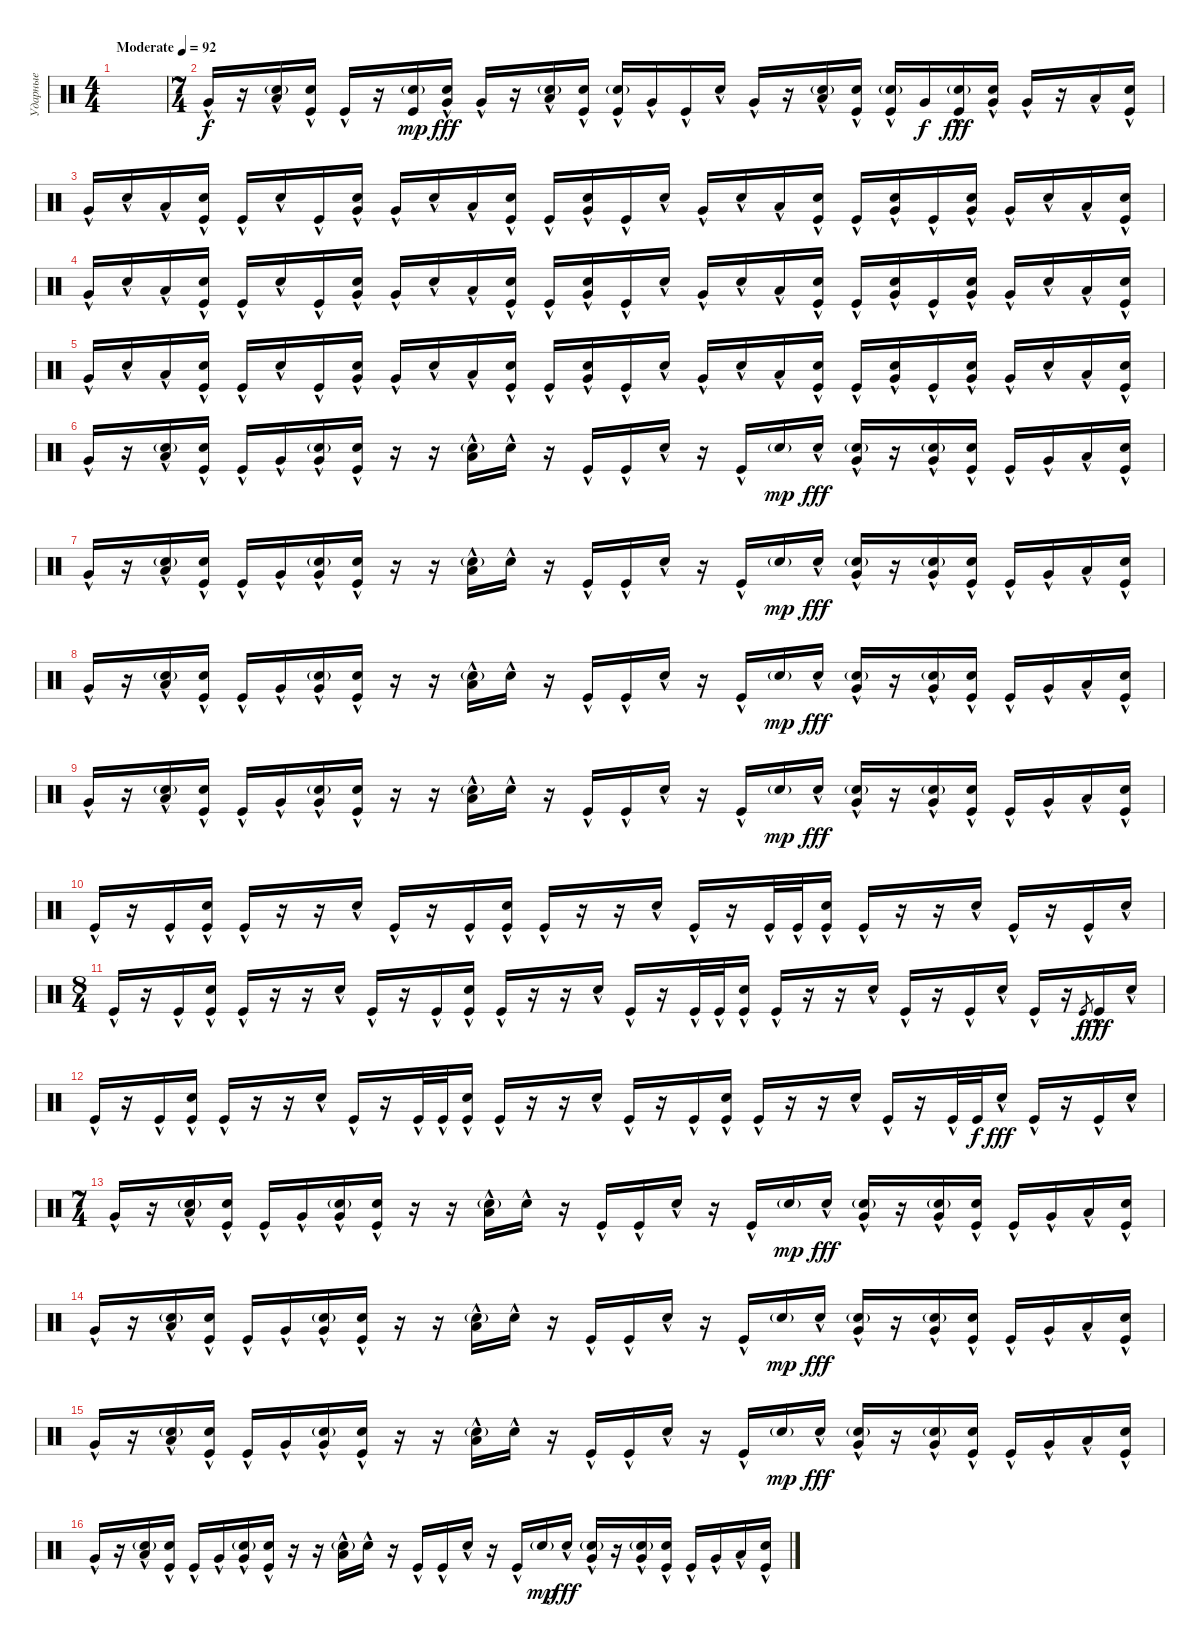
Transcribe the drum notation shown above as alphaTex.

\track ("Ударные" "Ударные") {instrument percussion}
\staff {score}
\articulation defaults
\ts (4 4)
\tempo (92 "Moderate")
\clef neutral
\ks c
|
\ts (7 4)
"Very Low Tom (hit)"{hac}.16 r.16 ("Electric Snare (hit)"{g} "Low Floor Tom (hit)"{hac}).16 ("Electric Snare (hit)"{hac} "Kick (hit)"{hac}).16 "Kick (hit)"{hac}.16 r.16 ("Electric Snare (hit)"{g} "Kick (hit)").16{dy mp} ("Electric Snare (hit)" "Very Low Tom (hit)"{hac}).16{dy fff} "Very Low Tom (hit)"{hac}.16 r.16 ("Electric Snare (hit)"{g} "Low Floor Tom (hit)"{hac}).16 ("Electric Snare (hit)"{hac} "Kick (hit)"{hac}).16 ("Electric Snare (hit)"{g} "Kick (hit)"{hac}).16 "Very Low Tom (hit)"{hac}.16 "Kick (hit)"{hac}.16 "Electric Snare (hit)"{hac}.16 "Very Low Tom (hit)"{hac}.16 r.16 ("Electric Snare (hit)"{g} "Low Floor Tom (hit)"{hac}).16 ("Electric Snare (hit)"{hac} "Kick (hit)"{hac}).16 ("Electric Snare (hit)"{g} "Kick (hit)"{hac}).16 "Very Low Tom (hit)".16{dy f} ("Electric Snare (hit)"{g} "Kick (hit)"{hac}).16{dy fff} ("Electric Snare (hit)"{hac} "Very Low Tom (hit)").16 "Very Low Tom (hit)"{hac}.16 r.16 "Low Floor Tom (hit)"{hac}.16 ("Electric Snare (hit)"{hac} "Kick (hit)"{hac}).16 |
"Very Low Tom (hit)"{hac}.16 "Electric Snare (hit)"{hac}.16 "Low Floor Tom (hit)"{hac}.16 ("Electric Snare (hit)"{hac} "Kick (hit)"{hac}).16 "Kick (hit)"{hac}.16 "Electric Snare (hit)"{hac}.16 "Kick (hit)"{hac}.16 ("Electric Snare (hit)"{hac} "Very Low Tom (hit)"{hac}).16 "Very Low Tom (hit)"{hac}.16 "Electric Snare (hit)"{hac}.16 "Low Floor Tom (hit)"{hac}.16 ("Electric Snare (hit)"{hac} "Kick (hit)"{hac}).16 "Kick (hit)"{hac}.16 ("Electric Snare (hit)"{hac} "Very Low Tom (hit)"{hac}).16 "Kick (hit)"{hac}.16 "Electric Snare (hit)"{hac}.16 "Very Low Tom (hit)"{hac}.16 "Electric Snare (hit)"{hac}.16 "Low Floor Tom (hit)"{hac}.16 ("Electric Snare (hit)"{hac} "Kick (hit)"{hac}).16 "Kick (hit)"{hac}.16 ("Electric Snare (hit)"{hac} "Very Low Tom (hit)"{hac}).16 "Kick (hit)"{hac}.16 ("Electric Snare (hit)"{hac} "Very Low Tom (hit)"{hac}).16 "Very Low Tom (hit)"{hac}.16 "Electric Snare (hit)"{hac}.16 "Low Floor Tom (hit)"{hac}.16 ("Electric Snare (hit)"{hac} "Kick (hit)"{hac}).16 |
"Very Low Tom (hit)"{hac}.16 "Electric Snare (hit)"{hac}.16 "Low Floor Tom (hit)"{hac}.16 ("Electric Snare (hit)"{hac} "Kick (hit)"{hac}).16 "Kick (hit)"{hac}.16 "Electric Snare (hit)"{hac}.16 "Kick (hit)"{hac}.16 ("Electric Snare (hit)"{hac} "Very Low Tom (hit)"{hac}).16 "Very Low Tom (hit)"{hac}.16 "Electric Snare (hit)"{hac}.16 "Low Floor Tom (hit)"{hac}.16 ("Electric Snare (hit)"{hac} "Kick (hit)"{hac}).16 "Kick (hit)"{hac}.16 ("Electric Snare (hit)"{hac} "Very Low Tom (hit)"{hac}).16 "Kick (hit)"{hac}.16 "Electric Snare (hit)"{hac}.16 "Very Low Tom (hit)"{hac}.16 "Electric Snare (hit)"{hac}.16 "Low Floor Tom (hit)"{hac}.16 ("Electric Snare (hit)"{hac} "Kick (hit)"{hac}).16 "Kick (hit)"{hac}.16 ("Electric Snare (hit)"{hac} "Very Low Tom (hit)"{hac}).16 "Kick (hit)"{hac}.16 ("Electric Snare (hit)"{hac} "Very Low Tom (hit)"{hac}).16 "Very Low Tom (hit)"{hac}.16 "Electric Snare (hit)"{hac}.16 "Low Floor Tom (hit)"{hac}.16 ("Electric Snare (hit)"{hac} "Kick (hit)"{hac}).16 |
"Very Low Tom (hit)"{hac}.16 "Electric Snare (hit)"{hac}.16 "Low Floor Tom (hit)"{hac}.16 ("Electric Snare (hit)"{hac} "Kick (hit)"{hac}).16 "Kick (hit)"{hac}.16 "Electric Snare (hit)"{hac}.16 "Kick (hit)"{hac}.16 ("Electric Snare (hit)"{hac} "Very Low Tom (hit)"{hac}).16 "Very Low Tom (hit)"{hac}.16 "Electric Snare (hit)"{hac}.16 "Low Floor Tom (hit)"{hac}.16 ("Electric Snare (hit)"{hac} "Kick (hit)"{hac}).16 "Kick (hit)"{hac}.16 ("Electric Snare (hit)"{hac} "Very Low Tom (hit)"{hac}).16 "Kick (hit)"{hac}.16 "Electric Snare (hit)"{hac}.16 "Very Low Tom (hit)"{hac}.16 "Electric Snare (hit)"{hac}.16 "Low Floor Tom (hit)"{hac}.16 ("Electric Snare (hit)"{hac} "Kick (hit)"{hac}).16 "Kick (hit)"{hac}.16 ("Electric Snare (hit)"{hac} "Very Low Tom (hit)"{hac}).16 "Kick (hit)"{hac}.16 ("Electric Snare (hit)"{hac} "Very Low Tom (hit)"{hac}).16 "Very Low Tom (hit)"{hac}.16 "Electric Snare (hit)"{hac}.16 "Low Floor Tom (hit)"{hac}.16 ("Electric Snare (hit)"{hac} "Kick (hit)"{hac}).16 |
"Very Low Tom (hit)"{hac}.16 r.16 ("Electric Snare (hit)"{g} "Low Floor Tom (hit)"{hac}).16 ("Electric Snare (hit)"{hac} "Kick (hit)"{hac}).16 "Kick (hit)"{hac}.16 "Very Low Tom (hit)"{hac}.16 ("Electric Snare (hit)"{g} "Very Low Tom (hit)"{hac}).16 ("Electric Snare (hit)"{hac} "Kick (hit)"{hac}).16 r.16 r.16 ("Electric Snare (hit)"{g} "Low Floor Tom (hit)"{hac}).16 "Electric Snare (hit)"{hac}.16 r.16 "Kick (hit)"{hac}.16 "Kick (hit)"{hac}.16 "Electric Snare (hit)"{hac}.16 r.16 "Kick (hit)"{hac}.16 "Electric Snare (hit)"{g}.16{dy mp} "Electric Snare (hit)"{hac}.16{dy fff} ("Electric Snare (hit)"{g} "Very Low Tom (hit)"{hac}).16 r.16 ("Electric Snare (hit)"{g} "Very Low Tom (hit)"{hac}).16 ("Electric Snare (hit)"{hac} "Kick (hit)"{hac}).16 "Kick (hit)"{hac}.16 "Very Low Tom (hit)"{hac}.16 "Low Floor Tom (hit)"{hac}.16 ("Electric Snare (hit)"{hac} "Kick (hit)"{hac}).16 |
"Very Low Tom (hit)"{hac}.16 r.16 ("Electric Snare (hit)"{g} "Low Floor Tom (hit)"{hac}).16 ("Electric Snare (hit)"{hac} "Kick (hit)"{hac}).16 "Kick (hit)"{hac}.16 "Very Low Tom (hit)"{hac}.16 ("Electric Snare (hit)"{g} "Very Low Tom (hit)"{hac}).16 ("Electric Snare (hit)"{hac} "Kick (hit)"{hac}).16 r.16 r.16 ("Electric Snare (hit)"{g} "Low Floor Tom (hit)"{hac}).16 "Electric Snare (hit)"{hac}.16 r.16 "Kick (hit)"{hac}.16 "Kick (hit)"{hac}.16 "Electric Snare (hit)"{hac}.16 r.16 "Kick (hit)"{hac}.16 "Electric Snare (hit)"{g}.16{dy mp} "Electric Snare (hit)"{hac}.16{dy fff} ("Electric Snare (hit)"{g} "Very Low Tom (hit)"{hac}).16 r.16 ("Electric Snare (hit)"{g} "Very Low Tom (hit)"{hac}).16 ("Electric Snare (hit)"{hac} "Kick (hit)"{hac}).16 "Kick (hit)"{hac}.16 "Very Low Tom (hit)"{hac}.16 "Low Floor Tom (hit)"{hac}.16 ("Electric Snare (hit)"{hac} "Kick (hit)"{hac}).16 |
"Very Low Tom (hit)"{hac}.16 r.16 ("Electric Snare (hit)"{g} "Low Floor Tom (hit)"{hac}).16 ("Electric Snare (hit)"{hac} "Kick (hit)"{hac}).16 "Kick (hit)"{hac}.16 "Very Low Tom (hit)"{hac}.16 ("Electric Snare (hit)"{g} "Very Low Tom (hit)"{hac}).16 ("Electric Snare (hit)"{hac} "Kick (hit)"{hac}).16 r.16 r.16 ("Electric Snare (hit)"{g} "Low Floor Tom (hit)"{hac}).16 "Electric Snare (hit)"{hac}.16 r.16 "Kick (hit)"{hac}.16 "Kick (hit)"{hac}.16 "Electric Snare (hit)"{hac}.16 r.16 "Kick (hit)"{hac}.16 "Electric Snare (hit)"{g}.16{dy mp} "Electric Snare (hit)"{hac}.16{dy fff} ("Electric Snare (hit)"{g} "Very Low Tom (hit)"{hac}).16 r.16 ("Electric Snare (hit)"{g} "Very Low Tom (hit)"{hac}).16 ("Electric Snare (hit)"{hac} "Kick (hit)"{hac}).16 "Kick (hit)"{hac}.16 "Very Low Tom (hit)"{hac}.16 "Low Floor Tom (hit)"{hac}.16 ("Electric Snare (hit)"{hac} "Kick (hit)"{hac}).16 |
"Very Low Tom (hit)"{hac}.16 r.16 ("Electric Snare (hit)"{g} "Low Floor Tom (hit)"{hac}).16 ("Electric Snare (hit)"{hac} "Kick (hit)"{hac}).16 "Kick (hit)"{hac}.16 "Very Low Tom (hit)"{hac}.16 ("Electric Snare (hit)"{g} "Very Low Tom (hit)"{hac}).16 ("Electric Snare (hit)"{hac} "Kick (hit)"{hac}).16 r.16 r.16 ("Electric Snare (hit)"{g} "Low Floor Tom (hit)"{hac}).16 "Electric Snare (hit)"{hac}.16 r.16 "Kick (hit)"{hac}.16 "Kick (hit)"{hac}.16 "Electric Snare (hit)"{hac}.16 r.16 "Kick (hit)"{hac}.16 "Electric Snare (hit)"{g}.16{dy mp} "Electric Snare (hit)"{hac}.16{dy fff} ("Electric Snare (hit)"{g} "Very Low Tom (hit)"{hac}).16 r.16 ("Electric Snare (hit)"{g} "Very Low Tom (hit)"{hac}).16 ("Electric Snare (hit)"{hac} "Kick (hit)"{hac}).16 "Kick (hit)"{hac}.16 "Very Low Tom (hit)"{hac}.16 "Low Floor Tom (hit)"{hac}.16 ("Electric Snare (hit)"{hac} "Kick (hit)"{hac}).16 |
"Kick (hit)"{hac}.16 r.16 "Kick (hit)"{hac}.16 ("Electric Snare (hit)"{hac} "Kick (hit)"{hac}).16 "Kick (hit)"{hac}.16 r.16 r.16 "Electric Snare (hit)"{hac}.16 "Kick (hit)"{hac}.16 r.16 "Kick (hit)"{hac}.16 ("Electric Snare (hit)"{hac} "Kick (hit)"{hac}).16 "Kick (hit)"{hac}.16 r.16 r.16 "Electric Snare (hit)"{hac}.16 "Kick (hit)"{hac}.16 r.16 "Kick (hit)"{hac}.32 "Kick (hit)"{hac}.32 ("Electric Snare (hit)"{hac} "Kick (hit)"{hac}).16 "Kick (hit)"{hac}.16 r.16 r.16 "Electric Snare (hit)"{hac}.16 "Kick (hit)"{hac}.16 r.16 "Kick (hit)"{hac}.16 "Electric Snare (hit)"{hac}.16 |
\ts (8 4)
"Kick (hit)"{hac}.16 r.16 "Kick (hit)"{hac}.16 ("Electric Snare (hit)"{hac} "Kick (hit)"{hac}).16 "Kick (hit)"{hac}.16 r.16 r.16 "Electric Snare (hit)"{hac}.16 "Kick (hit)"{hac}.16 r.16 "Kick (hit)"{hac}.16 ("Electric Snare (hit)"{hac} "Kick (hit)"{hac}).16 "Kick (hit)"{hac}.16 r.16 r.16 "Electric Snare (hit)"{hac}.16 "Kick (hit)"{hac}.16 r.16 "Kick (hit)"{hac}.32 "Kick (hit)"{hac}.32 ("Electric Snare (hit)"{hac} "Kick (hit)"{hac}).16 "Kick (hit)"{hac}.16 r.16 r.16 "Electric Snare (hit)"{hac}.16 "Kick (hit)"{hac}.16 r.16 "Kick (hit)"{hac}.16 "Electric Snare (hit)"{hac}.16 "Kick (hit)"{hac}.16 r.16 "Kick (hit)".8{gr dy f} "Kick (hit)"{hac}.16{dy fff} "Electric Snare (hit)"{hac}.16 |
"Kick (hit)"{hac}.16 r.16 "Kick (hit)"{hac}.16 ("Electric Snare (hit)"{hac} "Kick (hit)"{hac}).16 "Kick (hit)"{hac}.16 r.16 r.16 "Electric Snare (hit)"{hac}.16 "Kick (hit)"{hac}.16 r.16 "Kick (hit)"{hac}.32 "Kick (hit)"{hac}.32 ("Electric Snare (hit)"{hac} "Kick (hit)"{hac}).16 "Kick (hit)"{hac}.16 r.16 r.16 "Electric Snare (hit)"{hac}.16 "Kick (hit)"{hac}.16 r.16 "Kick (hit)"{hac}.16 ("Electric Snare (hit)"{hac} "Kick (hit)"{hac}).16 "Kick (hit)"{hac}.16 r.16 r.16 "Electric Snare (hit)"{hac}.16 "Kick (hit)"{hac}.16 r.16 "Kick (hit)"{hac}.32 "Kick (hit)".32{dy f} "Electric Snare (hit)"{hac}.16{dy fff} "Kick (hit)"{hac}.16 r.16 "Kick (hit)"{hac}.16 "Electric Snare (hit)"{hac}.16 |
\ts (7 4)
"Very Low Tom (hit)"{hac}.16 r.16 ("Electric Snare (hit)"{g} "Low Floor Tom (hit)"{hac}).16 ("Electric Snare (hit)"{hac} "Kick (hit)"{hac}).16 "Kick (hit)"{hac}.16 "Very Low Tom (hit)"{hac}.16 ("Electric Snare (hit)"{g} "Very Low Tom (hit)"{hac}).16 ("Electric Snare (hit)"{hac} "Kick (hit)"{hac}).16 r.16 r.16 ("Electric Snare (hit)"{g} "Low Floor Tom (hit)"{hac}).16 "Electric Snare (hit)"{hac}.16 r.16 "Kick (hit)"{hac}.16 "Kick (hit)"{hac}.16 "Electric Snare (hit)"{hac}.16 r.16 "Kick (hit)"{hac}.16 "Electric Snare (hit)"{g}.16{dy mp} "Electric Snare (hit)"{hac}.16{dy fff} ("Electric Snare (hit)"{g} "Very Low Tom (hit)"{hac}).16 r.16 ("Electric Snare (hit)"{g} "Very Low Tom (hit)"{hac}).16 ("Electric Snare (hit)"{hac} "Kick (hit)"{hac}).16 "Kick (hit)"{hac}.16 "Very Low Tom (hit)"{hac}.16 "Low Floor Tom (hit)"{hac}.16 ("Electric Snare (hit)"{hac} "Kick (hit)"{hac}).16 |
"Very Low Tom (hit)"{hac}.16 r.16 ("Electric Snare (hit)"{g} "Low Floor Tom (hit)"{hac}).16 ("Electric Snare (hit)"{hac} "Kick (hit)"{hac}).16 "Kick (hit)"{hac}.16 "Very Low Tom (hit)"{hac}.16 ("Electric Snare (hit)"{g} "Very Low Tom (hit)"{hac}).16 ("Electric Snare (hit)"{hac} "Kick (hit)"{hac}).16 r.16 r.16 ("Electric Snare (hit)"{g} "Low Floor Tom (hit)"{hac}).16 "Electric Snare (hit)"{hac}.16 r.16 "Kick (hit)"{hac}.16 "Kick (hit)"{hac}.16 "Electric Snare (hit)"{hac}.16 r.16 "Kick (hit)"{hac}.16 "Electric Snare (hit)"{g}.16{dy mp} "Electric Snare (hit)"{hac}.16{dy fff} ("Electric Snare (hit)"{g} "Very Low Tom (hit)"{hac}).16 r.16 ("Electric Snare (hit)"{g} "Very Low Tom (hit)"{hac}).16 ("Electric Snare (hit)"{hac} "Kick (hit)"{hac}).16 "Kick (hit)"{hac}.16 "Very Low Tom (hit)"{hac}.16 "Low Floor Tom (hit)"{hac}.16 ("Electric Snare (hit)"{hac} "Kick (hit)"{hac}).16 |
"Very Low Tom (hit)"{hac}.16 r.16 ("Electric Snare (hit)"{g} "Low Floor Tom (hit)"{hac}).16 ("Electric Snare (hit)"{hac} "Kick (hit)"{hac}).16 "Kick (hit)"{hac}.16 "Very Low Tom (hit)"{hac}.16 ("Electric Snare (hit)"{g} "Very Low Tom (hit)"{hac}).16 ("Electric Snare (hit)"{hac} "Kick (hit)"{hac}).16 r.16 r.16 ("Electric Snare (hit)"{g} "Low Floor Tom (hit)"{hac}).16 "Electric Snare (hit)"{hac}.16 r.16 "Kick (hit)"{hac}.16 "Kick (hit)"{hac}.16 "Electric Snare (hit)"{hac}.16 r.16 "Kick (hit)"{hac}.16 "Electric Snare (hit)"{g}.16{dy mp} "Electric Snare (hit)"{hac}.16{dy fff} ("Electric Snare (hit)"{g} "Very Low Tom (hit)"{hac}).16 r.16 ("Electric Snare (hit)"{g} "Very Low Tom (hit)"{hac}).16 ("Electric Snare (hit)"{hac} "Kick (hit)"{hac}).16 "Kick (hit)"{hac}.16 "Very Low Tom (hit)"{hac}.16 "Low Floor Tom (hit)"{hac}.16 ("Electric Snare (hit)"{hac} "Kick (hit)"{hac}).16 |
"Very Low Tom (hit)"{hac}.16 r.16 ("Electric Snare (hit)"{g} "Low Floor Tom (hit)"{hac}).16 ("Electric Snare (hit)"{hac} "Kick (hit)"{hac}).16 "Kick (hit)"{hac}.16 "Very Low Tom (hit)"{hac}.16 ("Electric Snare (hit)"{g} "Very Low Tom (hit)"{hac}).16 ("Electric Snare (hit)"{hac} "Kick (hit)"{hac}).16 r.16 r.16 ("Electric Snare (hit)"{g} "Low Floor Tom (hit)"{hac}).16 "Electric Snare (hit)"{hac}.16 r.16 "Kick (hit)"{hac}.16 "Kick (hit)"{hac}.16 "Electric Snare (hit)"{hac}.16 r.16 "Kick (hit)"{hac}.16 "Electric Snare (hit)"{g}.16{dy mp} "Electric Snare (hit)"{hac}.16{dy fff} ("Electric Snare (hit)"{g} "Very Low Tom (hit)"{hac}).16 r.16 ("Electric Snare (hit)"{g} "Very Low Tom (hit)"{hac}).16 ("Electric Snare (hit)"{hac} "Kick (hit)"{hac}).16 "Kick (hit)"{hac}.16 "Very Low Tom (hit)"{hac}.16 "Low Floor Tom (hit)"{hac}.16 ("Electric Snare (hit)"{hac} "Kick (hit)"{hac}).16
